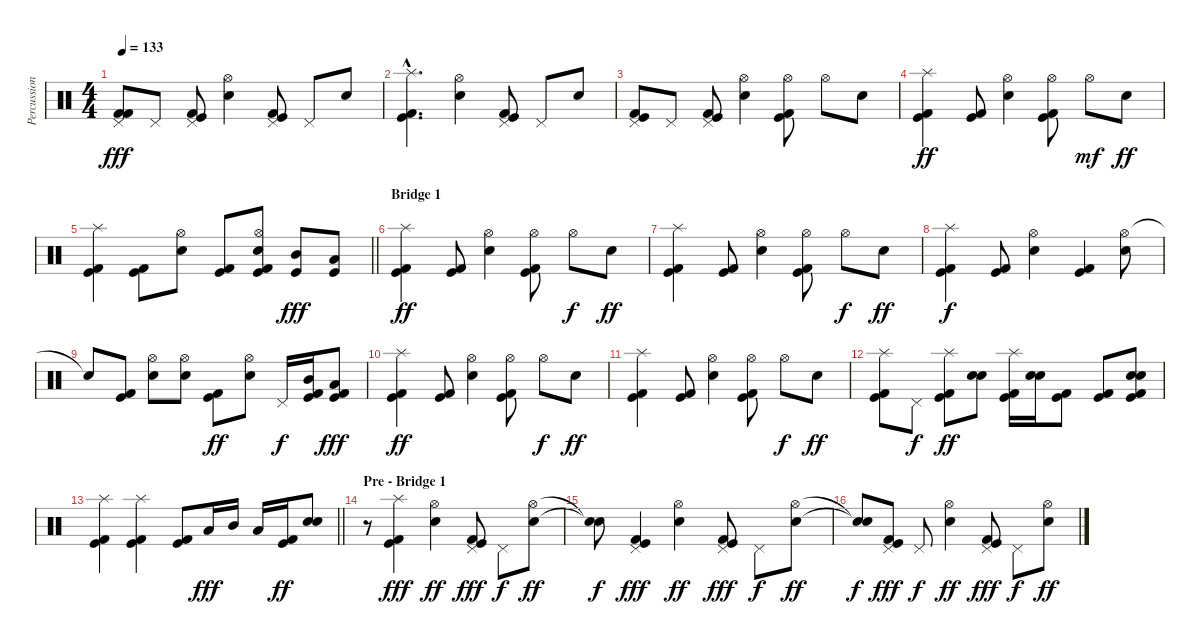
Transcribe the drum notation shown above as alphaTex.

\track ("Percussion" "Percussion") {instrument percussion}
\staff {score}
\articulation defaults
\ts (4 4)
\tempo 133
\clef neutral
\ks c
("Pedal Hi-Hat (hit)" "Kick (hit) 2" "Kick (hit) 2").8{dy fff} "Pedal Hi-Hat (hit)".8 ("Pedal Hi-Hat (hit)" "Kick (hit)" "Kick (hit) 2").8 ("Hi-Hat (open)" "Snare (hit) 2").4 ("Pedal Hi-Hat (hit)" "Kick (hit)" "Kick (hit) 2").8 "Pedal Hi-Hat (hit)".8 "Snare (hit) 2".8 |
("Splash (hit)"{hac} "Kick (hit)"{hac} "Kick (hit) 2"{hac}).4{d} ("Hi-Hat (open)" "Snare (hit) 2").4 ("Pedal Hi-Hat (hit)" "Kick (hit)" "Kick (hit) 2").8 "Pedal Hi-Hat (hit)".8 "Snare (hit) 2".8 |
("Pedal Hi-Hat (hit)" "Kick (hit)" "Kick (hit) 2").8 "Pedal Hi-Hat (hit)".8 ("Pedal Hi-Hat (hit)" "Kick (hit)" "Kick (hit) 2").8 ("Hi-Hat (open)" "Snare (hit) 2").4 ("Hi-Hat (open)" "Kick (hit)" "Kick (hit) 2").8 "Hi-Hat (open)".8 "Snare (hit) 2".8 |
("Splash (hit)" "Kick (hit)" "Kick (hit) 2").4{dy ff} ("Kick (hit)" "Kick (hit) 2").8 ("Hi-Hat (open)" "Snare (hit) 2").4 ("Hi-Hat (open)" "Kick (hit)" "Kick (hit) 2").8 "Hi-Hat (open)".8{dy mf} "Snare (hit) 2".8{dy ff} |
\barLineRight lightlight
("Splash (hit)" "Kick (hit)" "Kick (hit) 2").4 ("Kick (hit)" "Kick (hit) 2").8 ("Hi-Hat (open)" "Snare (hit) 2").8 ("Kick (hit)" "Kick (hit) 2").8 ("Hi-Hat (open)" "Snare (hit) 2" "Kick (hit)" "Kick (hit) 2").8 ("Mid Tom (hit)" "Kick (hit)").8{dy fff} ("Low Tom (hit)" "Kick (hit)").8 |
\section ("" "Bridge 1")
("Splash (hit)" "Kick (hit)" "Kick (hit) 2").4{dy ff} ("Kick (hit)" "Kick (hit) 2").8 ("Hi-Hat (open)" "Snare (hit) 2").4 ("Hi-Hat (open)" "Kick (hit)" "Kick (hit) 2").8 "Hi-Hat (open)".8{dy f} "Snare (hit) 2".8{dy ff} |
("Splash (hit)" "Kick (hit)" "Kick (hit) 2").4 ("Kick (hit)" "Kick (hit) 2").8 ("Hi-Hat (open)" "Snare (hit) 2").4 ("Hi-Hat (open)" "Kick (hit)" "Kick (hit) 2").8 "Hi-Hat (open)".8{dy f} "Snare (hit) 2".8{dy ff} |
("Splash (hit)" "Kick (hit)" "Kick (hit) 2").4{dy f} ("Kick (hit)" "Kick (hit) 2").8 ("Hi-Hat (open)" "Snare (hit) 2").4 ("Kick (hit)" "Kick (hit) 2").4 ("Hi-Hat (open)" "Snare (hit) 2").8 |
"Snare (hit)"{t}.8 ("Kick (hit)" "Kick (hit) 2").8 ("Hi-Hat (open)" "Snare (hit) 2").8 ("Hi-Hat (open)" "Snare (hit) 2").8 ("Kick (hit)" "Kick (hit) 2").8{dy ff} ("Hi-Hat (open)" "Snare (hit) 2").8 "Pedal Hi-Hat (hit)".16{dy f} ("Mid Tom (hit)" "Kick (hit)" "Kick (hit) 2").16 ("Low Tom (hit)" "Kick (hit)" "Kick (hit) 2").8{dy fff} |
("Splash (hit)" "Kick (hit)" "Kick (hit) 2").4{dy ff} ("Kick (hit)" "Kick (hit) 2").8 ("Hi-Hat (open)" "Snare (hit) 2").4 ("Hi-Hat (open)" "Kick (hit)" "Kick (hit) 2").8 "Hi-Hat (open)".8{dy f} "Snare (hit) 2".8{dy ff} |
("Splash (hit)" "Kick (hit)" "Kick (hit) 2").4 ("Kick (hit)" "Kick (hit) 2").8 ("Hi-Hat (open)" "Snare (hit) 2").4 ("Hi-Hat (open)" "Kick (hit)" "Kick (hit) 2").8 "Hi-Hat (open)".8{dy f} "Snare (hit) 2".8{dy ff} |
("Splash (hit)" "Kick (hit)" "Kick (hit) 2").8 "Pedal Hi-Hat (hit)".8{dy f} ("Splash (hit)" "Kick (hit)" "Kick (hit) 2").8{dy ff} ("Electric Snare (hit)" "Snare (hit) 2").8 ("Splash (hit)" "Kick (hit)" "Kick (hit) 2").16 ("Electric Snare (hit)" "Snare (hit) 2").16 ("Kick (hit)" "Kick (hit) 2").8 ("Kick (hit)" "Kick (hit) 2").8 ("Electric Snare (hit)" "Snare (hit) 2" "Kick (hit)" "Kick (hit) 2").8 |
\barLineRight lightlight
("Splash (hit)" "Kick (hit)" "Kick (hit) 2").4 ("Splash (hit)" "Kick (hit)" "Kick (hit) 2").4 ("Kick (hit)" "Kick (hit) 2").8 "Low Tom (hit)".16{dy fff} "Mid Tom (hit)".16 "Low Tom (hit)".16 ("Kick (hit)" "Kick (hit) 2").16{dy ff} ("Electric Snare (hit)" "Snare (hit) 2").8{bd 60} |
\section ("" "Pre - Bridge 1")
r.8 ("Splash (hit)" "Kick (hit)" "Kick (hit) 2").4{dy fff} ("Hi-Hat (open)" "Snare (hit) 2").4{dy ff} ("Pedal Hi-Hat (hit)" "Kick (hit)" "Kick (hit) 2").8{dy fff} "Pedal Hi-Hat (hit)".8{dy f} ("Hi-Hat (open)" "Snare (hit) 2").8{dy ff} |
("Snare (hit)"{t} "Snare (hit)"{t}).8{dy f} ("Pedal Hi-Hat (hit)" "Kick (hit)" "Kick (hit) 2").4{dy fff} ("Hi-Hat (open)" "Snare (hit) 2").4{dy ff} ("Pedal Hi-Hat (hit)" "Kick (hit)" "Kick (hit) 2").8{dy fff} "Pedal Hi-Hat (hit)".8{dy f} ("Hi-Hat (open)" "Snare (hit) 2").8{dy ff} |
("Snare (hit)"{t} "Snare (hit)"{t}).8{dy f} ("Pedal Hi-Hat (hit)" "Kick (hit)" "Kick (hit) 2").8{dy fff} "Pedal Hi-Hat (hit)".8{dy f} ("Hi-Hat (open)" "Snare (hit) 2").4{dy ff} ("Pedal Hi-Hat (hit)" "Kick (hit)" "Kick (hit) 2").8{dy fff} "Pedal Hi-Hat (hit)".8{dy f} ("Hi-Hat (open)" "Snare (hit) 2").8{dy ff}
